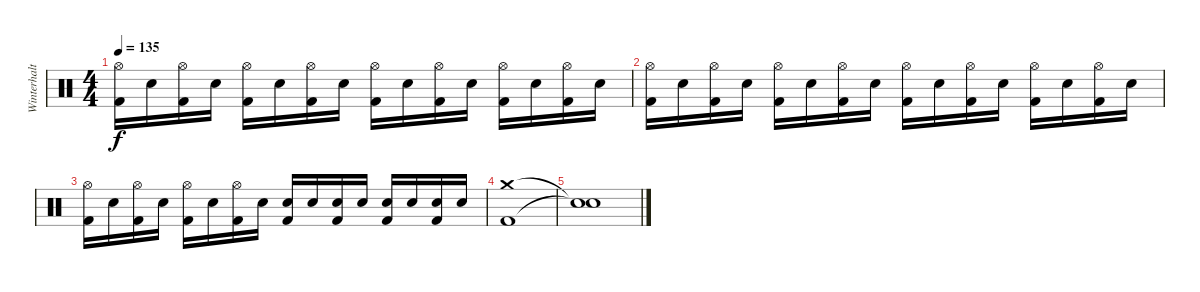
\track ("Winterhalter" "Winterhalt") {instrument percussion}
\staff {score}
\articulation defaults
\ts (4 4)
\tempo 135
\clef neutral
\ks c
("Hi-Hat (open)" "Kick (hit) 2").16{dy f} "Snare (hit) 2".16 ("Hi-Hat (open)" "Kick (hit) 2").16 "Snare (hit) 2".16 ("Hi-Hat (open)" "Kick (hit) 2").16 "Snare (hit) 2".16 ("Hi-Hat (open)" "Kick (hit) 2").16 "Snare (hit) 2".16 ("Hi-Hat (open)" "Kick (hit) 2").16 "Snare (hit) 2".16 ("Hi-Hat (open)" "Kick (hit) 2").16 "Snare (hit) 2".16 ("Hi-Hat (open)" "Kick (hit) 2").16 "Snare (hit) 2".16 ("Hi-Hat (open)" "Kick (hit) 2").16 "Snare (hit) 2".16 |
("Hi-Hat (open)" "Kick (hit) 2").16 "Snare (hit) 2".16 ("Hi-Hat (open)" "Kick (hit) 2").16 "Snare (hit) 2".16 ("Hi-Hat (open)" "Kick (hit) 2").16 "Snare (hit) 2".16 ("Hi-Hat (open)" "Kick (hit) 2").16 "Snare (hit) 2".16 ("Hi-Hat (open)" "Kick (hit) 2").16 "Snare (hit) 2".16 ("Hi-Hat (open)" "Kick (hit) 2").16 "Snare (hit) 2".16 ("Hi-Hat (open)" "Kick (hit) 2").16 "Snare (hit) 2".16 ("Hi-Hat (open)" "Kick (hit) 2").16 "Snare (hit) 2".16 |
("Hi-Hat (open)" "Kick (hit) 2").16 "Snare (hit) 2".16 ("Hi-Hat (open)" "Kick (hit) 2").16 "Snare (hit) 2".16 ("Hi-Hat (open)" "Kick (hit) 2").16 "Snare (hit) 2".16 ("Hi-Hat (open)" "Kick (hit) 2").16 "Snare (hit) 2".16 ("Snare (hit) 2" "Kick (hit) 2").16 "Snare (hit) 2".16 ("Snare (hit) 2" "Kick (hit) 2").16 "Snare (hit) 2".16 ("Snare (hit) 2" "Kick (hit) 2").16 "Snare (hit) 2".16 ("Snare (hit) 2" "Kick (hit) 2").16 "Snare (hit) 2".16 |
("Crash medium (hit)" "Kick (hit) 2").1 |
("Snare (hit)"{t} "Snare (hit)"{t}).1
